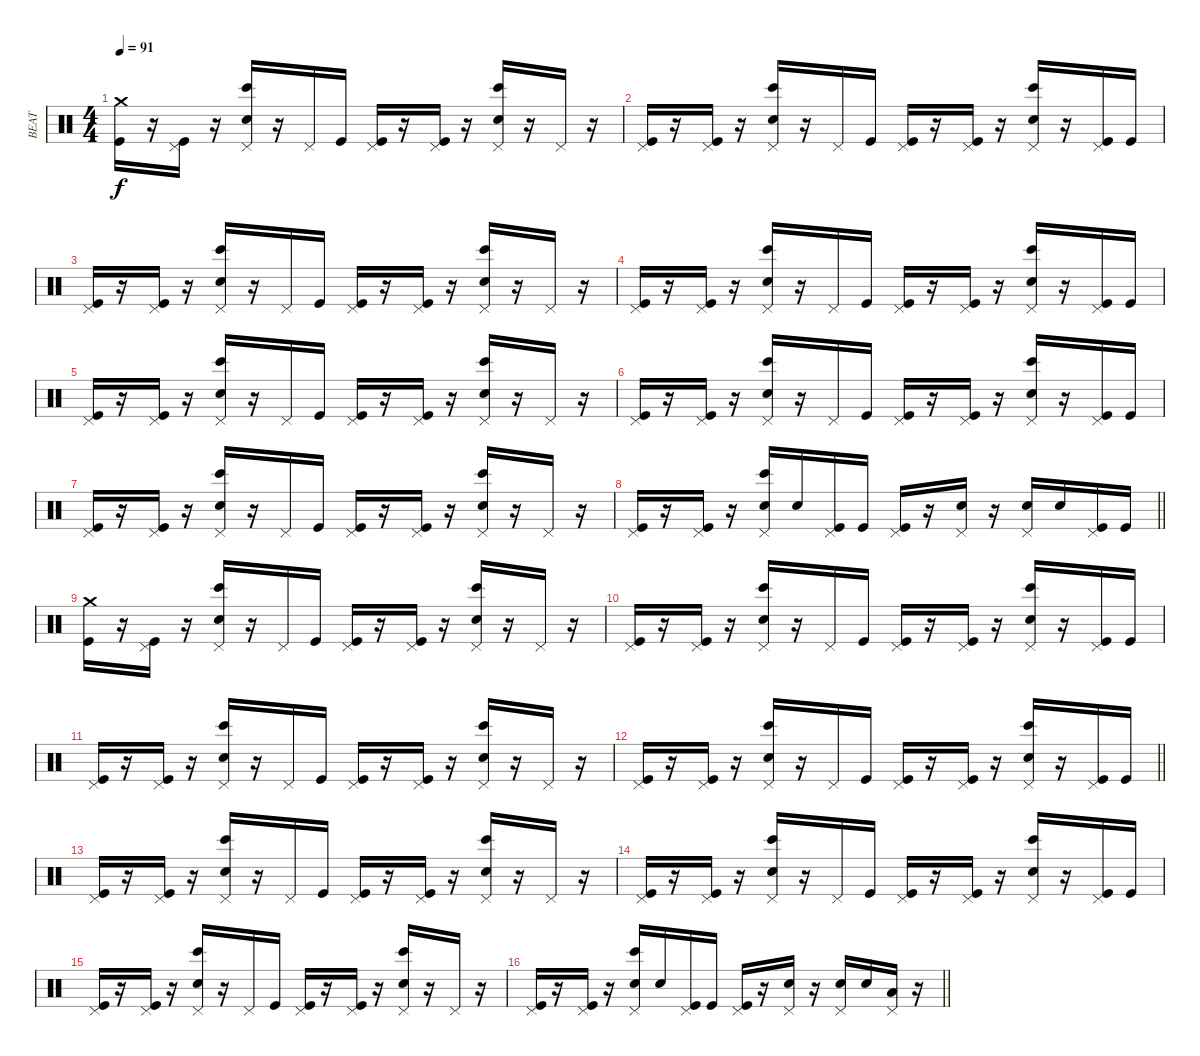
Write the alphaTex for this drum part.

\track ("BEAT" "BEAT") {instrument percussion}
\staff {score}
\articulation defaults
\ts (4 4)
\section ("" "")
\tempo 91
\clef neutral
\ks c
("Crash medium (hit)" "Kick (hit)").16{dy f} r.16 ("Pedal Hi-Hat (hit)" "Kick (hit)").16 r.16 ("Pedal Hi-Hat (hit)" "Bongo High (hit)" "Electric Snare (hit)").16 r.16 "Pedal Hi-Hat (hit)".16 "Kick (hit)".16 ("Pedal Hi-Hat (hit)" "Kick (hit)").16 r.16 ("Pedal Hi-Hat (hit)" "Kick (hit)").16 r.16 ("Pedal Hi-Hat (hit)" "Bongo High (hit)" "Electric Snare (hit)").16 r.16 "Pedal Hi-Hat (hit)".16 r.16 |
("Pedal Hi-Hat (hit)" "Kick (hit)").16 r.16 ("Pedal Hi-Hat (hit)" "Kick (hit)").16 r.16 ("Pedal Hi-Hat (hit)" "Bongo High (hit)" "Electric Snare (hit)").16 r.16 "Pedal Hi-Hat (hit)".16 "Kick (hit)".16 ("Pedal Hi-Hat (hit)" "Kick (hit)").16 r.16 ("Pedal Hi-Hat (hit)" "Kick (hit)").16 r.16 ("Pedal Hi-Hat (hit)" "Bongo High (hit)" "Electric Snare (hit)").16 r.16 ("Pedal Hi-Hat (hit)" "Kick (hit)").16 "Kick (hit)".16 |
("Pedal Hi-Hat (hit)" "Kick (hit)").16 r.16 ("Pedal Hi-Hat (hit)" "Kick (hit)").16 r.16 ("Pedal Hi-Hat (hit)" "Bongo High (hit)" "Electric Snare (hit)").16 r.16 "Pedal Hi-Hat (hit)".16 "Kick (hit)".16 ("Pedal Hi-Hat (hit)" "Kick (hit)").16 r.16 ("Pedal Hi-Hat (hit)" "Kick (hit)").16 r.16 ("Pedal Hi-Hat (hit)" "Bongo High (hit)" "Electric Snare (hit)").16 r.16 "Pedal Hi-Hat (hit)".16 r.16 |
("Pedal Hi-Hat (hit)" "Kick (hit)").16 r.16 ("Pedal Hi-Hat (hit)" "Kick (hit)").16 r.16 ("Pedal Hi-Hat (hit)" "Bongo High (hit)" "Electric Snare (hit)").16 r.16 "Pedal Hi-Hat (hit)".16 "Kick (hit)".16 ("Pedal Hi-Hat (hit)" "Kick (hit)").16 r.16 ("Pedal Hi-Hat (hit)" "Kick (hit)").16 r.16 ("Pedal Hi-Hat (hit)" "Bongo High (hit)" "Electric Snare (hit)").16 r.16 ("Pedal Hi-Hat (hit)" "Kick (hit)").16 "Kick (hit)".16 |
("Pedal Hi-Hat (hit)" "Kick (hit)").16 r.16 ("Pedal Hi-Hat (hit)" "Kick (hit)").16 r.16 ("Pedal Hi-Hat (hit)" "Bongo High (hit)" "Electric Snare (hit)").16 r.16 "Pedal Hi-Hat (hit)".16 "Kick (hit)".16 ("Pedal Hi-Hat (hit)" "Kick (hit)").16 r.16 ("Pedal Hi-Hat (hit)" "Kick (hit)").16 r.16 ("Pedal Hi-Hat (hit)" "Bongo High (hit)" "Electric Snare (hit)").16 r.16 "Pedal Hi-Hat (hit)".16 r.16 |
("Pedal Hi-Hat (hit)" "Kick (hit)").16 r.16 ("Pedal Hi-Hat (hit)" "Kick (hit)").16 r.16 ("Pedal Hi-Hat (hit)" "Bongo High (hit)" "Electric Snare (hit)").16 r.16 "Pedal Hi-Hat (hit)".16 "Kick (hit)".16 ("Pedal Hi-Hat (hit)" "Kick (hit)").16 r.16 ("Pedal Hi-Hat (hit)" "Kick (hit)").16 r.16 ("Pedal Hi-Hat (hit)" "Bongo High (hit)" "Electric Snare (hit)").16 r.16 ("Pedal Hi-Hat (hit)" "Kick (hit)").16 "Kick (hit)".16 |
("Pedal Hi-Hat (hit)" "Kick (hit)").16 r.16 ("Pedal Hi-Hat (hit)" "Kick (hit)").16 r.16 ("Pedal Hi-Hat (hit)" "Bongo High (hit)" "Electric Snare (hit)").16 r.16 "Pedal Hi-Hat (hit)".16 "Kick (hit)".16 ("Pedal Hi-Hat (hit)" "Kick (hit)").16 r.16 ("Pedal Hi-Hat (hit)" "Kick (hit)").16 r.16 ("Pedal Hi-Hat (hit)" "Bongo High (hit)" "Electric Snare (hit)").16 r.16 "Pedal Hi-Hat (hit)".16 r.16 |
\barLineRight lightlight
("Pedal Hi-Hat (hit)" "Kick (hit)").16 r.16 ("Pedal Hi-Hat (hit)" "Kick (hit)").16 r.16 ("Pedal Hi-Hat (hit)" "Bongo High (hit)" "Electric Snare (hit)").16 "Electric Snare (hit)".16 ("Pedal Hi-Hat (hit)" "Kick (hit)").16 "Kick (hit)".16 ("Pedal Hi-Hat (hit)" "Kick (hit)").16 r.16 ("Pedal Hi-Hat (hit)" "Electric Snare (hit)").16 r.16 ("Pedal Hi-Hat (hit)" "Electric Snare (hit)").16 "Electric Snare (hit)".16 ("Pedal Hi-Hat (hit)" "Kick (hit)").16 "Kick (hit)".16 |
\section ("" "")
("Crash medium (hit)" "Kick (hit)").16 r.16 ("Pedal Hi-Hat (hit)" "Kick (hit)").16 r.16 ("Pedal Hi-Hat (hit)" "Bongo High (hit)" "Electric Snare (hit)").16 r.16 "Pedal Hi-Hat (hit)".16 "Kick (hit)".16 ("Pedal Hi-Hat (hit)" "Kick (hit)").16 r.16 ("Pedal Hi-Hat (hit)" "Kick (hit)").16 r.16 ("Pedal Hi-Hat (hit)" "Bongo High (hit)" "Electric Snare (hit)").16 r.16 "Pedal Hi-Hat (hit)".16 r.16 |
("Pedal Hi-Hat (hit)" "Kick (hit)").16 r.16 ("Pedal Hi-Hat (hit)" "Kick (hit)").16 r.16 ("Pedal Hi-Hat (hit)" "Bongo High (hit)" "Electric Snare (hit)").16 r.16 "Pedal Hi-Hat (hit)".16 "Kick (hit)".16 ("Pedal Hi-Hat (hit)" "Kick (hit)").16 r.16 ("Pedal Hi-Hat (hit)" "Kick (hit)").16 r.16 ("Pedal Hi-Hat (hit)" "Bongo High (hit)" "Electric Snare (hit)").16 r.16 ("Pedal Hi-Hat (hit)" "Kick (hit)").16 "Kick (hit)".16 |
("Pedal Hi-Hat (hit)" "Kick (hit)").16 r.16 ("Pedal Hi-Hat (hit)" "Kick (hit)").16 r.16 ("Pedal Hi-Hat (hit)" "Bongo High (hit)" "Electric Snare (hit)").16 r.16 "Pedal Hi-Hat (hit)".16 "Kick (hit)".16 ("Pedal Hi-Hat (hit)" "Kick (hit)").16 r.16 ("Pedal Hi-Hat (hit)" "Kick (hit)").16 r.16 ("Pedal Hi-Hat (hit)" "Bongo High (hit)" "Electric Snare (hit)").16 r.16 "Pedal Hi-Hat (hit)".16 r.16 |
\barLineRight lightlight
("Pedal Hi-Hat (hit)" "Kick (hit)").16 r.16 ("Pedal Hi-Hat (hit)" "Kick (hit)").16 r.16 ("Pedal Hi-Hat (hit)" "Bongo High (hit)" "Electric Snare (hit)").16 r.16 "Pedal Hi-Hat (hit)".16 "Kick (hit)".16 ("Pedal Hi-Hat (hit)" "Kick (hit)").16 r.16 ("Pedal Hi-Hat (hit)" "Kick (hit)").16 r.16 ("Pedal Hi-Hat (hit)" "Bongo High (hit)" "Electric Snare (hit)").16 r.16 ("Pedal Hi-Hat (hit)" "Kick (hit)").16 "Kick (hit)".16 |
\section ("" "")
("Pedal Hi-Hat (hit)" "Kick (hit)").16 r.16 ("Pedal Hi-Hat (hit)" "Kick (hit)").16 r.16 ("Pedal Hi-Hat (hit)" "Bongo High (hit)" "Electric Snare (hit)").16 r.16 "Pedal Hi-Hat (hit)".16 "Kick (hit)".16 ("Pedal Hi-Hat (hit)" "Kick (hit)").16 r.16 ("Pedal Hi-Hat (hit)" "Kick (hit)").16 r.16 ("Pedal Hi-Hat (hit)" "Bongo High (hit)" "Electric Snare (hit)").16 r.16 "Pedal Hi-Hat (hit)".16 r.16 |
("Pedal Hi-Hat (hit)" "Kick (hit)").16 r.16 ("Pedal Hi-Hat (hit)" "Kick (hit)").16 r.16 ("Pedal Hi-Hat (hit)" "Bongo High (hit)" "Electric Snare (hit)").16 r.16 "Pedal Hi-Hat (hit)".16 "Kick (hit)".16 ("Pedal Hi-Hat (hit)" "Kick (hit)").16 r.16 ("Pedal Hi-Hat (hit)" "Kick (hit)").16 r.16 ("Pedal Hi-Hat (hit)" "Bongo High (hit)" "Electric Snare (hit)").16 r.16 ("Pedal Hi-Hat (hit)" "Kick (hit)").16 "Kick (hit)".16 |
("Pedal Hi-Hat (hit)" "Kick (hit)").16 r.16 ("Pedal Hi-Hat (hit)" "Kick (hit)").16 r.16 ("Pedal Hi-Hat (hit)" "Bongo High (hit)" "Electric Snare (hit)").16 r.16 "Pedal Hi-Hat (hit)".16 "Kick (hit)".16 ("Pedal Hi-Hat (hit)" "Kick (hit)").16 r.16 ("Pedal Hi-Hat (hit)" "Kick (hit)").16 r.16 ("Pedal Hi-Hat (hit)" "Bongo High (hit)" "Electric Snare (hit)").16 r.16 "Pedal Hi-Hat (hit)".16 r.16 |
\barLineRight lightlight
("Pedal Hi-Hat (hit)" "Kick (hit)").16 r.16 ("Pedal Hi-Hat (hit)" "Kick (hit)").16 r.16 ("Pedal Hi-Hat (hit)" "Bongo High (hit)" "Electric Snare (hit)").16 "Electric Snare (hit)".16 ("Pedal Hi-Hat (hit)" "Kick (hit)").16 "Kick (hit)".16 ("Pedal Hi-Hat (hit)" "Kick (hit)").16 r.16 ("Pedal Hi-Hat (hit)" "Electric Snare (hit)").16 r.16 ("Pedal Hi-Hat (hit)" "Electric Snare (hit)").16 "Electric Snare (hit)".16 ("Pedal Hi-Hat (hit)" "Low Tom (hit)").16 r.16
